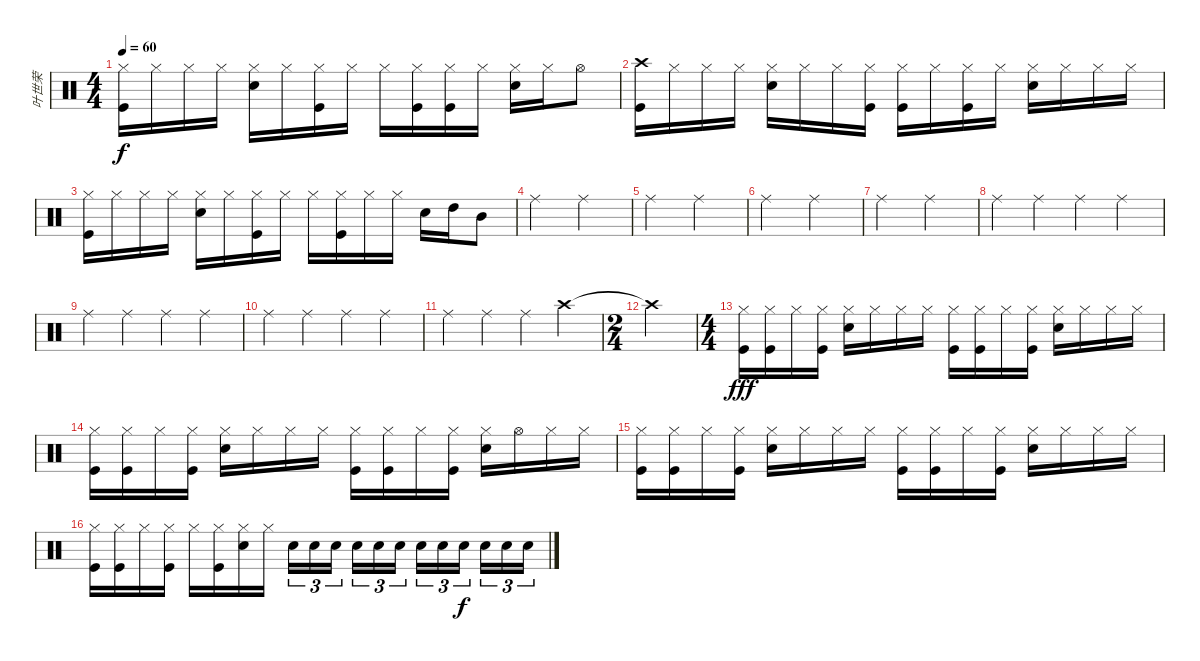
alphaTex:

\track ("叶世荣" "叶世荣") {instrument percussion}
\staff {score}
\articulation defaults
\ts (4 4)
\tempo 60
\clef neutral
\ks c
("Hi-Hat (closed)" "Kick (hit)").16{dy f} "Hi-Hat (closed)".16 "Hi-Hat (closed)".16 "Hi-Hat (closed)".16 ("Hi-Hat (closed)" "Snare (hit) 2").16 "Hi-Hat (closed)".16 ("Hi-Hat (closed)" "Kick (hit)").16 "Hi-Hat (closed)".16 "Hi-Hat (closed)".16 ("Hi-Hat (closed)" "Kick (hit)").16 ("Hi-Hat (closed)" "Kick (hit)").16 "Hi-Hat (closed)".16 ("Hi-Hat (closed)" "Snare (hit) 2").16 "Hi-Hat (closed)".16 "Hi-Hat (open)".8 |
("Crash high (hit)" "Kick (hit)").16 "Hi-Hat (closed)".16 "Hi-Hat (closed)".16 "Hi-Hat (closed)".16 ("Hi-Hat (closed)" "Snare (hit) 2").16 "Hi-Hat (closed)".16 "Hi-Hat (closed)".16 ("Hi-Hat (closed)" "Kick (hit)").16 ("Hi-Hat (closed)" "Kick (hit)").16 "Hi-Hat (closed)".16 ("Hi-Hat (closed)" "Kick (hit)").16 "Hi-Hat (closed)".16 ("Hi-Hat (closed)" "Snare (hit) 2").16 "Hi-Hat (closed)".16 "Hi-Hat (closed)".16 "Hi-Hat (closed)".16 |
("Hi-Hat (closed)" "Kick (hit)").16 "Hi-Hat (closed)".16 "Hi-Hat (closed)".16 "Hi-Hat (closed)".16 ("Hi-Hat (closed)" "Snare (hit) 2").16 "Hi-Hat (closed)".16 ("Hi-Hat (closed)" "Kick (hit)").16 "Hi-Hat (closed)".16 "Hi-Hat (closed)".16 ("Hi-Hat (closed)" "Kick (hit)").16 "Hi-Hat (closed)".16 "Hi-Hat (closed)".16 "Snare (hit) 2".16 "High Tom (hit)".16 "Mid Tom (hit)".8 |
"Ride (middle)".2 "Ride (middle)".2 |
"Ride (middle)".2 "Ride (middle)".2 |
"Ride (middle)".2 "Ride (middle)".2 |
"Ride (middle)".2 "Ride (middle)".2 |
"Ride (middle)".4 "Ride (middle)".4 "Ride (middle)".4 "Ride (middle)".4 |
"Ride (middle)".4 "Ride (middle)".4 "Ride (middle)".4 "Ride (middle)".4 |
"Ride (middle)".4 "Ride (middle)".4 "Ride (middle)".4 "Ride (middle)".4 |
"Ride (middle)".4 "Ride (middle)".4 "Ride (middle)".4 "Crash high (hit)".4 |
\ts (2 4)
"Crash high (hit)"{t}.2 |
\ts (4 4)
("Hi-Hat (closed)" "Kick (hit)").16{dy fff} ("Hi-Hat (closed)" "Kick (hit)").16 "Hi-Hat (closed)".16 ("Hi-Hat (closed)" "Kick (hit)").16 ("Hi-Hat (closed)" "Snare (hit) 2").16 "Hi-Hat (closed)".16 "Hi-Hat (closed)".16 "Hi-Hat (closed)".16 ("Hi-Hat (closed)" "Kick (hit)").16 ("Hi-Hat (closed)" "Kick (hit)").16 "Hi-Hat (closed)".16 ("Hi-Hat (closed)" "Kick (hit)").16 ("Hi-Hat (closed)" "Snare (hit) 2").16 "Hi-Hat (closed)".16 "Hi-Hat (closed)".16 "Hi-Hat (closed)".16 |
("Hi-Hat (closed)" "Kick (hit)").16 ("Hi-Hat (closed)" "Kick (hit)").16 "Hi-Hat (closed)".16 ("Hi-Hat (closed)" "Kick (hit)").16 ("Hi-Hat (closed)" "Snare (hit) 2").16 "Hi-Hat (closed)".16 "Hi-Hat (closed)".16 "Hi-Hat (closed)".16 ("Hi-Hat (closed)" "Kick (hit)").16 ("Hi-Hat (closed)" "Kick (hit)").16 "Hi-Hat (closed)".16 ("Hi-Hat (closed)" "Kick (hit)").16 ("Hi-Hat (closed)" "Snare (hit) 2").16 "Hi-Hat (open)".16 "Hi-Hat (closed)".16 "Hi-Hat (closed)".16 |
("Hi-Hat (closed)" "Kick (hit)").16 ("Hi-Hat (closed)" "Kick (hit)").16 "Hi-Hat (closed)".16 ("Hi-Hat (closed)" "Kick (hit)").16 ("Hi-Hat (closed)" "Snare (hit) 2").16 "Hi-Hat (closed)".16 "Hi-Hat (closed)".16 "Hi-Hat (closed)".16 ("Hi-Hat (closed)" "Kick (hit)").16 ("Hi-Hat (closed)" "Kick (hit)").16 "Hi-Hat (closed)".16 ("Hi-Hat (closed)" "Kick (hit)").16 ("Hi-Hat (closed)" "Snare (hit) 2").16 "Hi-Hat (closed)".16 "Hi-Hat (closed)".16 "Hi-Hat (closed)".16 |
("Hi-Hat (closed)" "Kick (hit)").16 ("Hi-Hat (closed)" "Kick (hit)").16 "Hi-Hat (closed)".16 ("Hi-Hat (closed)" "Kick (hit)").16 "Hi-Hat (closed)".16 ("Hi-Hat (closed)" "Kick (hit)").16 ("Hi-Hat (closed)" "Snare (hit) 2").16 "Hi-Hat (closed)".16 "Snare (hit) 2".16{tu (3 2)} "Snare (hit) 2".16{tu (3 2)} "Snare (hit) 2".16{tu (3 2) beam splitsecondary} "Snare (hit) 2".16{tu (3 2)} "Snare (hit) 2".16{tu (3 2)} "Snare (hit) 2".16{tu (3 2)} "Snare (hit) 2".16{tu (3 2)} "Snare (hit) 2".16{tu (3 2)} "Snare (hit) 2".16{tu (3 2) dy f beam splitsecondary} "Snare (hit) 2".16{tu (3 2)} "Snare (hit) 2".16{tu (3 2)} "Snare (hit) 2".16{tu (3 2)}
